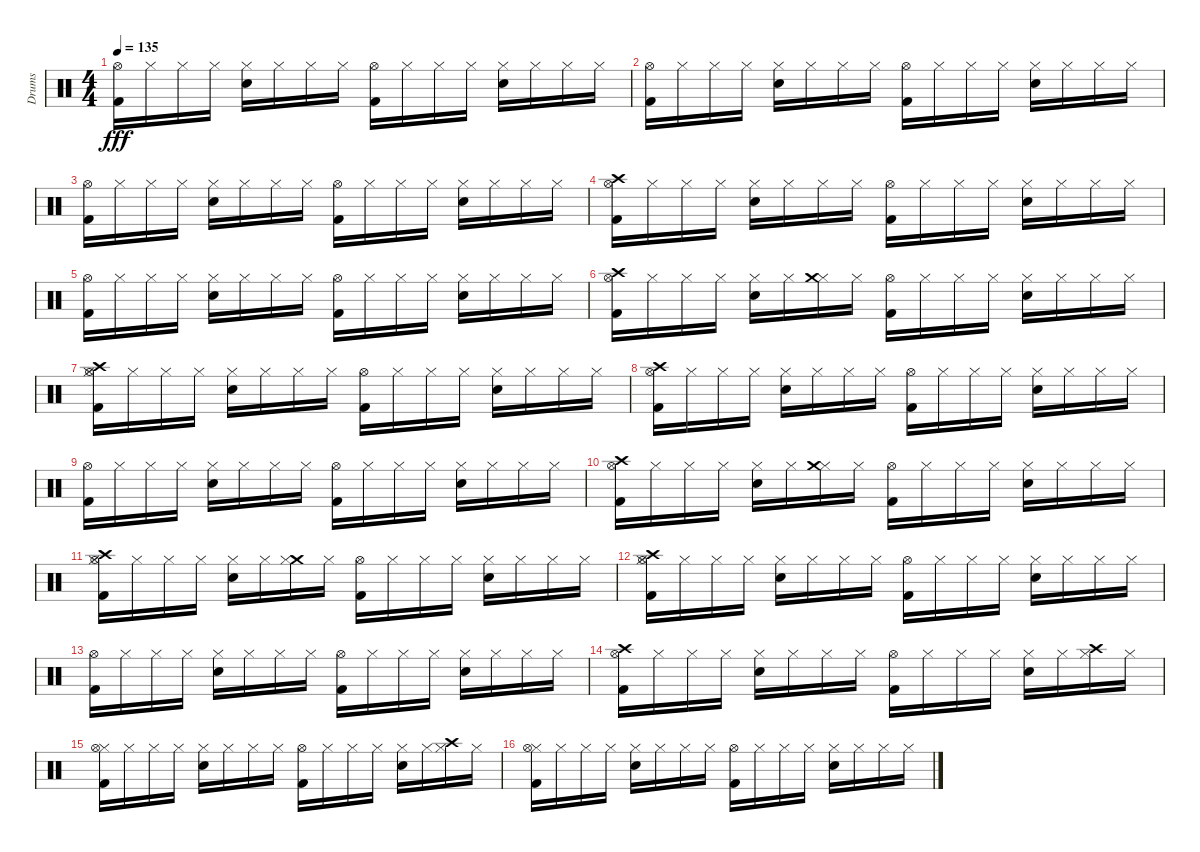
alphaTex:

\track ("Drums" "Drums") {instrument percussion}
\staff {score}
\articulation defaults
\ts (4 4)
\tempo 135
\clef neutral
\ks c
("Hi-Hat (open)" "Kick (hit) 2").16{dy fff} "Hi-Hat (closed)".16 "Hi-Hat (closed)".16 "Hi-Hat (closed)".16 ("Snare (hit) 2" "Hi-Hat (closed)").16 "Hi-Hat (closed)".16 "Hi-Hat (closed)".16 "Hi-Hat (closed)".16 ("Kick (hit) 2" "Hi-Hat (open)").16 "Hi-Hat (closed)".16 "Hi-Hat (closed)".16 "Hi-Hat (closed)".16 ("Snare (hit) 2" "Hi-Hat (closed)").16 "Hi-Hat (closed)".16 "Hi-Hat (closed)".16 "Hi-Hat (closed)".16 |
("Hi-Hat (open)" "Kick (hit) 2").16 "Hi-Hat (closed)".16 "Hi-Hat (closed)".16 "Hi-Hat (closed)".16 ("Snare (hit) 2" "Hi-Hat (closed)").16 "Hi-Hat (closed)".16 "Hi-Hat (closed)".16 "Hi-Hat (closed)".16 ("Kick (hit) 2" "Hi-Hat (open)").16 "Hi-Hat (closed)".16 "Hi-Hat (closed)".16 "Hi-Hat (closed)".16 ("Snare (hit) 2" "Hi-Hat (closed)").16 "Hi-Hat (closed)".16 "Hi-Hat (closed)".16 "Hi-Hat (closed)".16 |
("Hi-Hat (open)" "Kick (hit) 2").16 "Hi-Hat (closed)".16 "Hi-Hat (closed)".16 "Hi-Hat (closed)".16 ("Snare (hit) 2" "Hi-Hat (closed)").16 "Hi-Hat (closed)".16 "Hi-Hat (closed)".16 "Hi-Hat (closed)".16 ("Kick (hit) 2" "Hi-Hat (open)").16 "Hi-Hat (closed)".16 "Hi-Hat (closed)".16 "Hi-Hat (closed)".16 ("Snare (hit) 2" "Hi-Hat (closed)").16 "Hi-Hat (closed)".16 "Hi-Hat (closed)".16 "Hi-Hat (closed)".16 |
("Crash high (hit)" "Hi-Hat (open)" "Kick (hit) 2").16 "Hi-Hat (closed)".16 "Hi-Hat (closed)".16 "Hi-Hat (closed)".16 ("Snare (hit) 2" "Hi-Hat (closed)").16 "Hi-Hat (closed)".16 "Hi-Hat (closed)".16 "Hi-Hat (closed)".16 ("Kick (hit) 2" "Hi-Hat (open)").16 "Hi-Hat (closed)".16 "Hi-Hat (closed)".16 "Hi-Hat (closed)".16 ("Snare (hit) 2" "Hi-Hat (closed)").16 "Hi-Hat (closed)".16 "Hi-Hat (closed)".16 "Hi-Hat (closed)".16 |
("Hi-Hat (open)" "Kick (hit) 2").16 "Hi-Hat (closed)".16 "Hi-Hat (closed)".16 "Hi-Hat (closed)".16 ("Snare (hit) 2" "Hi-Hat (closed)").16 "Hi-Hat (closed)".16 "Hi-Hat (closed)".16 "Hi-Hat (closed)".16 ("Kick (hit) 2" "Hi-Hat (open)").16 "Hi-Hat (closed)".16 "Hi-Hat (closed)".16 "Hi-Hat (closed)".16 ("Snare (hit) 2" "Hi-Hat (closed)").16 "Hi-Hat (closed)".16 "Hi-Hat (closed)".16 "Hi-Hat (closed)".16 |
("Crash high (hit)" "Hi-Hat (open)" "Kick (hit) 2").16 "Hi-Hat (closed)".16 "Hi-Hat (closed)".16 "Hi-Hat (closed)".16 ("Snare (hit) 2" "Hi-Hat (closed)").16 "Hi-Hat (closed)".16 ("Hi-Hat (closed)" "Crash medium (hit)").16 "Hi-Hat (closed)".16 ("Kick (hit) 2" "Hi-Hat (open)").16 "Hi-Hat (closed)".16 "Hi-Hat (closed)".16 "Hi-Hat (closed)".16 ("Snare (hit) 2" "Hi-Hat (closed)").16 "Hi-Hat (closed)".16 "Hi-Hat (closed)".16 "Hi-Hat (closed)".16 |
("Hi-Hat (closed)" "Crash high (hit)" "Hi-Hat (open)" "Kick (hit) 2").16 "Hi-Hat (closed)".16 "Hi-Hat (closed)".16 "Hi-Hat (closed)".16 ("Snare (hit) 2" "Hi-Hat (closed)").16 "Hi-Hat (closed)".16 "Hi-Hat (closed)".16 "Hi-Hat (closed)".16 ("Kick (hit) 2" "Hi-Hat (open)").16 "Hi-Hat (closed)".16 "Hi-Hat (closed)".16 "Hi-Hat (closed)".16 ("Snare (hit) 2" "Hi-Hat (closed)").16 "Hi-Hat (closed)".16 "Hi-Hat (closed)".16 "Hi-Hat (closed)".16 |
("Crash high (hit)" "Hi-Hat (open)" "Kick (hit) 2").16 "Hi-Hat (closed)".16 "Hi-Hat (closed)".16 "Hi-Hat (closed)".16 ("Snare (hit) 2" "Hi-Hat (closed)").16 "Hi-Hat (closed)".16 "Hi-Hat (closed)".16 "Hi-Hat (closed)".16 ("Kick (hit) 2" "Hi-Hat (open)").16 "Hi-Hat (closed)".16 "Hi-Hat (closed)".16 "Hi-Hat (closed)".16 ("Snare (hit) 2" "Hi-Hat (closed)").16 "Hi-Hat (closed)".16 "Hi-Hat (closed)".16 "Hi-Hat (closed)".16 |
("Hi-Hat (open)" "Kick (hit) 2").16 "Hi-Hat (closed)".16 "Hi-Hat (closed)".16 "Hi-Hat (closed)".16 ("Snare (hit) 2" "Hi-Hat (closed)").16 "Hi-Hat (closed)".16 "Hi-Hat (closed)".16 "Hi-Hat (closed)".16 ("Kick (hit) 2" "Hi-Hat (open)").16 "Hi-Hat (closed)".16 "Hi-Hat (closed)".16 "Hi-Hat (closed)".16 ("Snare (hit) 2" "Hi-Hat (closed)").16 "Hi-Hat (closed)".16 "Hi-Hat (closed)".16 "Hi-Hat (closed)".16 |
("Crash high (hit)" "Hi-Hat (open)" "Kick (hit) 2").16 "Hi-Hat (closed)".16 "Hi-Hat (closed)".16 "Hi-Hat (closed)".16 ("Snare (hit) 2" "Hi-Hat (closed)").16 "Hi-Hat (closed)".16 ("Hi-Hat (closed)" "Crash medium (hit)").16 "Hi-Hat (closed)".16 ("Kick (hit) 2" "Hi-Hat (open)").16 "Hi-Hat (closed)".16 "Hi-Hat (closed)".16 "Hi-Hat (closed)".16 ("Snare (hit) 2" "Hi-Hat (closed)").16 "Hi-Hat (closed)".16 "Hi-Hat (closed)".16 "Hi-Hat (closed)".16 |
("Hi-Hat (closed)" "Crash high (hit)" "Hi-Hat (open)" "Kick (hit) 2").16 "Hi-Hat (closed)".16 "Hi-Hat (closed)".16 "Hi-Hat (closed)".16 ("Snare (hit) 2" "Hi-Hat (closed)").16 "Hi-Hat (closed)".16 ("Crash medium (hit)" "Hi-Hat (closed)").16 "Hi-Hat (closed)".16 ("Kick (hit) 2" "Hi-Hat (open)").16 "Hi-Hat (closed)".16 "Hi-Hat (closed)".16 "Hi-Hat (closed)".16 ("Snare (hit) 2" "Hi-Hat (closed)").16 "Hi-Hat (closed)".16 "Hi-Hat (closed)".16 "Hi-Hat (closed)".16 |
("Hi-Hat (closed)" "Crash high (hit)" "Hi-Hat (open)" "Kick (hit) 2").16 "Hi-Hat (closed)".16 "Hi-Hat (closed)".16 "Hi-Hat (closed)".16 ("Snare (hit) 2" "Hi-Hat (closed)").16 "Hi-Hat (closed)".16 "Hi-Hat (closed)".16 "Hi-Hat (closed)".16 ("Kick (hit) 2" "Hi-Hat (open)").16 "Hi-Hat (closed)".16 "Hi-Hat (closed)".16 "Hi-Hat (closed)".16 ("Snare (hit) 2" "Hi-Hat (closed)").16 "Hi-Hat (closed)".16 "Hi-Hat (closed)".16 "Hi-Hat (closed)".16 |
("Hi-Hat (open)" "Kick (hit) 2").16 "Hi-Hat (closed)".16 "Hi-Hat (closed)".16 "Hi-Hat (closed)".16 ("Snare (hit) 2" "Hi-Hat (closed)").16 "Hi-Hat (closed)".16 "Hi-Hat (closed)".16 "Hi-Hat (closed)".16 ("Kick (hit) 2" "Hi-Hat (open)").16 "Hi-Hat (closed)".16 "Hi-Hat (closed)".16 "Hi-Hat (closed)".16 ("Snare (hit) 2" "Hi-Hat (closed)").16 "Hi-Hat (closed)".16 "Hi-Hat (closed)".16 "Hi-Hat (closed)".16 |
("Crash high (hit)" "Hi-Hat (open)" "Kick (hit) 2").16 "Hi-Hat (closed)".16 "Hi-Hat (closed)".16 "Hi-Hat (closed)".16 ("Snare (hit) 2" "Hi-Hat (closed)").16 "Hi-Hat (closed)".16 "Hi-Hat (closed)".16 "Hi-Hat (closed)".16 ("Kick (hit) 2" "Hi-Hat (open)").16 "Hi-Hat (closed)".16 "Hi-Hat (closed)".16 "Hi-Hat (closed)".16 ("Snare (hit) 2" "Hi-Hat (closed)").16 "Hi-Hat (closed)".16 ("Crash high (hit)" "Hi-Hat (closed)").16 "Hi-Hat (closed)".16 |
("Hi-Hat (closed)" "Hi-Hat (open)" "Kick (hit) 2").16 "Hi-Hat (closed)".16 "Hi-Hat (closed)".16 "Hi-Hat (closed)".16 ("Snare (hit) 2" "Hi-Hat (closed)").16 "Hi-Hat (closed)".16 "Hi-Hat (closed)".16 "Hi-Hat (closed)".16 ("Kick (hit) 2" "Hi-Hat (open)").16 "Hi-Hat (closed)".16 "Hi-Hat (closed)".16 "Hi-Hat (closed)".16 ("Snare (hit) 2" "Hi-Hat (closed)").16 "Hi-Hat (closed)".16 ("Crash high (hit)" "Hi-Hat (closed)").16 "Hi-Hat (closed)".16 |
("Hi-Hat (closed)" "Hi-Hat (open)" "Kick (hit) 2").16 "Hi-Hat (closed)".16 "Hi-Hat (closed)".16 "Hi-Hat (closed)".16 ("Snare (hit) 2" "Hi-Hat (closed)").16 "Hi-Hat (closed)".16 "Hi-Hat (closed)".16 "Hi-Hat (closed)".16 ("Kick (hit) 2" "Hi-Hat (open)").16 "Hi-Hat (closed)".16 "Hi-Hat (closed)".16 "Hi-Hat (closed)".16 ("Snare (hit) 2" "Hi-Hat (closed)").16 "Hi-Hat (closed)".16 "Hi-Hat (closed)".16 "Hi-Hat (closed)".16
